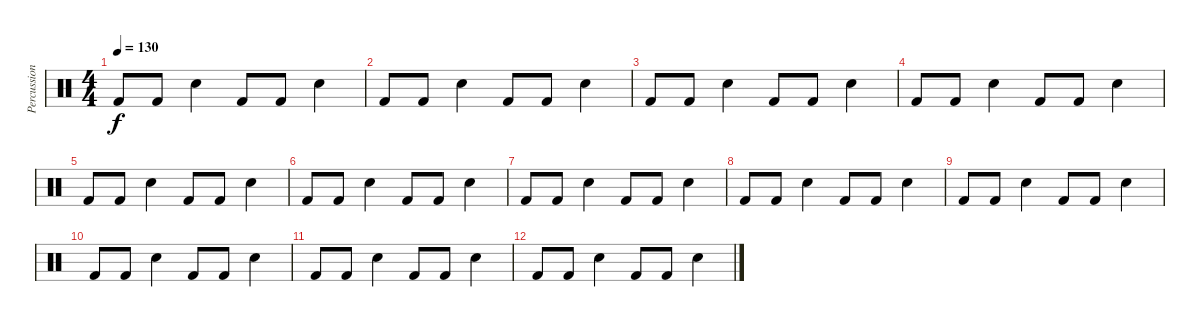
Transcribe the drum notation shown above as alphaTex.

\track ("Percussions" "Percussion") {instrument percussion}
\staff {score}
\articulation defaults
\ts (4 4)
\tempo 130
\clef neutral
\ks c "Kick (hit) 2".8{dy f} "Kick (hit) 2".8 "Snare (hit) 2".4 "Kick (hit) 2".8 "Kick (hit) 2".8 "Snare (hit) 2".4
|
"Kick (hit) 2".8 "Kick (hit) 2".8 "Snare (hit) 2".4 "Kick (hit) 2".8 "Kick (hit) 2".8 "Snare (hit) 2".4 |
"Kick (hit) 2".8 "Kick (hit) 2".8 "Snare (hit) 2".4 "Kick (hit) 2".8 "Kick (hit) 2".8 "Snare (hit) 2".4 |
"Kick (hit) 2".8 "Kick (hit) 2".8 "Snare (hit) 2".4 "Kick (hit) 2".8 "Kick (hit) 2".8 "Snare (hit) 2".4 |
"Kick (hit) 2".8 "Kick (hit) 2".8 "Snare (hit) 2".4 "Kick (hit) 2".8 "Kick (hit) 2".8 "Snare (hit) 2".4 |
"Kick (hit) 2".8 "Kick (hit) 2".8 "Snare (hit) 2".4 "Kick (hit) 2".8 "Kick (hit) 2".8 "Snare (hit) 2".4 |
"Kick (hit) 2".8 "Kick (hit) 2".8 "Snare (hit) 2".4 "Kick (hit) 2".8 "Kick (hit) 2".8 "Snare (hit) 2".4 |
"Kick (hit) 2".8 "Kick (hit) 2".8 "Snare (hit) 2".4 "Kick (hit) 2".8 "Kick (hit) 2".8 "Snare (hit) 2".4 |
"Kick (hit) 2".8 "Kick (hit) 2".8 "Snare (hit) 2".4 "Kick (hit) 2".8 "Kick (hit) 2".8 "Snare (hit) 2".4 |
"Kick (hit) 2".8 "Kick (hit) 2".8 "Snare (hit) 2".4 "Kick (hit) 2".8 "Kick (hit) 2".8 "Snare (hit) 2".4 |
"Kick (hit) 2".8 "Kick (hit) 2".8 "Snare (hit) 2".4 "Kick (hit) 2".8 "Kick (hit) 2".8 "Snare (hit) 2".4 |
"Kick (hit) 2".8 "Kick (hit) 2".8 "Snare (hit) 2".4 "Kick (hit) 2".8 "Kick (hit) 2".8 "Snare (hit) 2".4
